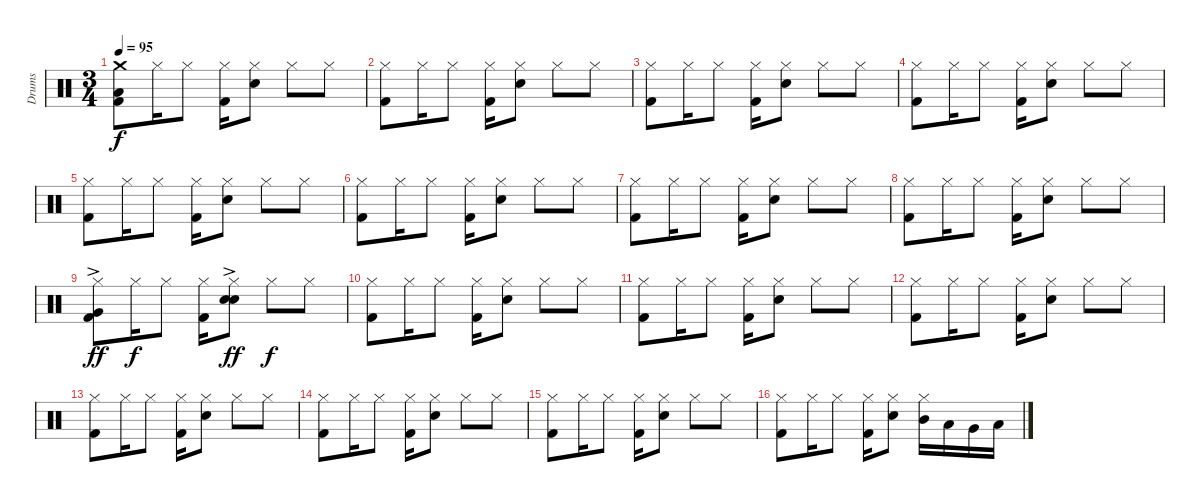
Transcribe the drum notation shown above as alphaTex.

\track ("Drums" "Drums") {instrument percussion}
\staff {score}
\articulation defaults
\ts (3 4)
\tempo 95
\clef neutral
\ks c
("Crash medium (hit)" "Low Tom (hit)" "Kick (hit) 2").8{dy f volume 16} "Hi-Hat (closed)".16{volume 15} "Hi-Hat (closed)".8 ("Hi-Hat (closed)" "Kick (hit) 2").16 ("Hi-Hat (closed)" "Electric Snare (hit)").8 "Hi-Hat (closed)".8 "Hi-Hat (closed)".8 |
("Hi-Hat (closed)" "Kick (hit) 2").8 "Hi-Hat (closed)".16 "Hi-Hat (closed)".8 ("Hi-Hat (closed)" "Kick (hit) 2").16 ("Hi-Hat (closed)" "Electric Snare (hit)").8 "Hi-Hat (closed)".8 "Hi-Hat (closed)".8 |
("Hi-Hat (closed)" "Kick (hit) 2").8 "Hi-Hat (closed)".16 "Hi-Hat (closed)".8 ("Hi-Hat (closed)" "Kick (hit) 2").16 ("Hi-Hat (closed)" "Electric Snare (hit)").8 "Hi-Hat (closed)".8 "Hi-Hat (closed)".8 |
("Hi-Hat (closed)" "Kick (hit) 2").8 "Hi-Hat (closed)".16 "Hi-Hat (closed)".8 ("Hi-Hat (closed)" "Kick (hit) 2").16 ("Hi-Hat (closed)" "Electric Snare (hit)").8 "Hi-Hat (closed)".8 "Hi-Hat (closed)".8 |
("Hi-Hat (closed)" "Kick (hit) 2").8 "Hi-Hat (closed)".16 "Hi-Hat (closed)".8 ("Hi-Hat (closed)" "Kick (hit) 2").16 ("Hi-Hat (closed)" "Electric Snare (hit)").8 "Hi-Hat (closed)".8 "Hi-Hat (closed)".8 |
("Hi-Hat (closed)" "Kick (hit) 2").8 "Hi-Hat (closed)".16 "Hi-Hat (closed)".8 ("Hi-Hat (closed)" "Kick (hit) 2").16 ("Hi-Hat (closed)" "Electric Snare (hit)").8 "Hi-Hat (closed)".8 "Hi-Hat (closed)".8 |
("Hi-Hat (closed)" "Kick (hit) 2").8 "Hi-Hat (closed)".16 "Hi-Hat (closed)".8 ("Hi-Hat (closed)" "Kick (hit) 2").16 ("Hi-Hat (closed)" "Electric Snare (hit)").8 "Hi-Hat (closed)".8 "Hi-Hat (closed)".8 |
("Hi-Hat (closed)" "Kick (hit) 2").8 "Hi-Hat (closed)".16 "Hi-Hat (closed)".8 ("Hi-Hat (closed)" "Kick (hit) 2").16 ("Hi-Hat (closed)" "Electric Snare (hit)").8 "Hi-Hat (closed)".8 "Hi-Hat (closed)".8 |
("Hi-Hat (closed)" "Very Low Tom (hit)"{ac} "Kick (hit) 2").8{dy ff} "Hi-Hat (closed)".16{dy f} "Hi-Hat (closed)".8 ("Hi-Hat (closed)" "Kick (hit) 2").16 ("Hi-Hat (closed)" "Electric Snare (hit)" "Snare (hit) 2"{ac}).8{dy ff} "Hi-Hat (closed)".8{dy f} "Hi-Hat (closed)".8 |
("Hi-Hat (closed)" "Kick (hit) 2").8 "Hi-Hat (closed)".16 "Hi-Hat (closed)".8 ("Hi-Hat (closed)" "Kick (hit) 2").16 ("Hi-Hat (closed)" "Electric Snare (hit)").8 "Hi-Hat (closed)".8 "Hi-Hat (closed)".8 |
("Hi-Hat (closed)" "Kick (hit) 2").8 "Hi-Hat (closed)".16 "Hi-Hat (closed)".8 ("Hi-Hat (closed)" "Kick (hit) 2").16 ("Hi-Hat (closed)" "Electric Snare (hit)").8 "Hi-Hat (closed)".8 "Hi-Hat (closed)".8 |
("Hi-Hat (closed)" "Kick (hit) 2").8 "Hi-Hat (closed)".16 "Hi-Hat (closed)".8 ("Hi-Hat (closed)" "Kick (hit) 2").16 ("Hi-Hat (closed)" "Electric Snare (hit)").8 "Hi-Hat (closed)".8 "Hi-Hat (closed)".8 |
("Hi-Hat (closed)" "Kick (hit) 2").8 "Hi-Hat (closed)".16 "Hi-Hat (closed)".8 ("Hi-Hat (closed)" "Kick (hit) 2").16 ("Hi-Hat (closed)" "Electric Snare (hit)").8 "Hi-Hat (closed)".8 "Hi-Hat (closed)".8 |
("Hi-Hat (closed)" "Kick (hit) 2").8 "Hi-Hat (closed)".16 "Hi-Hat (closed)".8 ("Hi-Hat (closed)" "Kick (hit) 2").16 ("Hi-Hat (closed)" "Electric Snare (hit)").8 "Hi-Hat (closed)".8 "Hi-Hat (closed)".8 |
("Hi-Hat (closed)" "Kick (hit) 2").8 "Hi-Hat (closed)".16 "Hi-Hat (closed)".8 ("Hi-Hat (closed)" "Kick (hit) 2").16 ("Hi-Hat (closed)" "Electric Snare (hit)").8 "Hi-Hat (closed)".8 "Hi-Hat (closed)".8 |
("Hi-Hat (closed)" "Kick (hit) 2").8 "Hi-Hat (closed)".16 "Hi-Hat (closed)".8 ("Hi-Hat (closed)" "Kick (hit) 2").16 ("Hi-Hat (closed)" "Electric Snare (hit)").8 ("Hi-Hat (closed)" "Mid Tom (hit)").16 "Low Tom (hit)".16 "Very Low Tom (hit)".16 "Low Floor Tom (hit)".16
